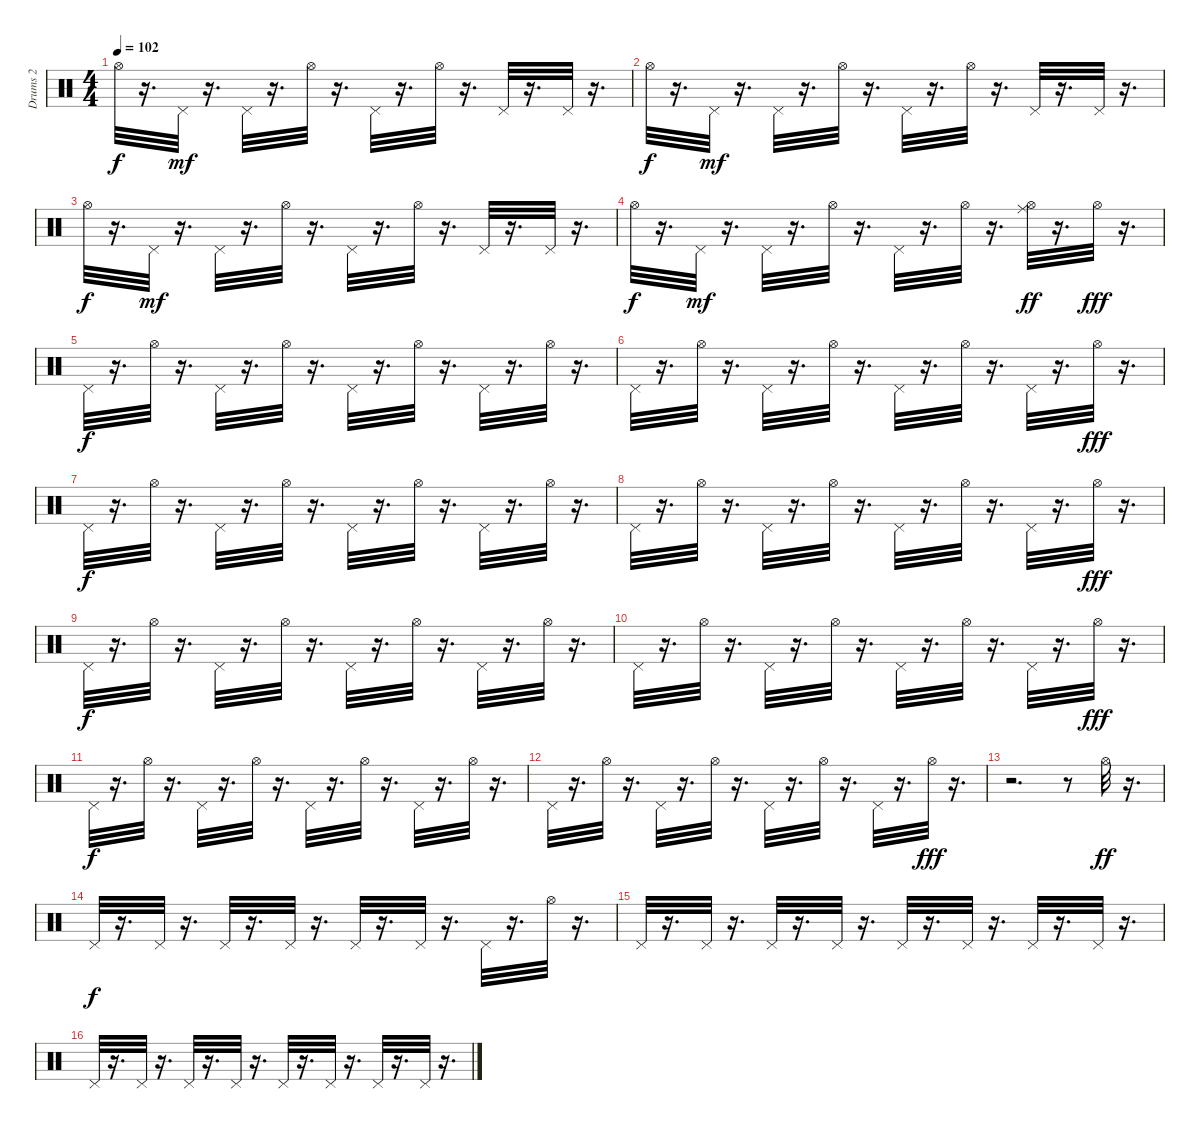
\track ("Drums 2" "Drums 2") {instrument percussion}
\staff {score}
\articulation defaults
\ts (4 4)
\tempo 102
\clef neutral
\ks c "Hi-Hat (open)".32{dy f}
r.16{d} "Pedal Hi-Hat (hit)".32{dy mf} r.16{d} "Pedal Hi-Hat (hit)".32 r.16{d} "Hi-Hat (open)".32 r.16{d} "Pedal Hi-Hat (hit)".32 r.16{d} "Hi-Hat (open)".32 r.16{d} "Pedal Hi-Hat (hit)".32 r.16{d} "Pedal Hi-Hat (hit)".32 r.16{d} |
"Hi-Hat (open)".32{dy f} r.16{d} "Pedal Hi-Hat (hit)".32{dy mf} r.16{d} "Pedal Hi-Hat (hit)".32 r.16{d} "Hi-Hat (open)".32 r.16{d} "Pedal Hi-Hat (hit)".32 r.16{d} "Hi-Hat (open)".32 r.16{d} "Pedal Hi-Hat (hit)".32 r.16{d} "Pedal Hi-Hat (hit)".32 r.16{d} |
"Hi-Hat (open)".32{dy f} r.16{d} "Pedal Hi-Hat (hit)".32{dy mf} r.16{d} "Pedal Hi-Hat (hit)".32 r.16{d} "Hi-Hat (open)".32 r.16{d} "Pedal Hi-Hat (hit)".32 r.16{d} "Hi-Hat (open)".32 r.16{d} "Pedal Hi-Hat (hit)".32 r.16{d} "Pedal Hi-Hat (hit)".32 r.16{d} |
"Hi-Hat (open)".32{dy f} r.16{d} "Pedal Hi-Hat (hit)".32{dy mf} r.16{d} "Pedal Hi-Hat (hit)".32 r.16{d} "Hi-Hat (open)".32 r.16{d} "Pedal Hi-Hat (hit)".32 r.16{d} "Hi-Hat (open)".32 r.16{d} ("Ride (middle)" "Hi-Hat (open)").32{dy ff} r.16{d} "Hi-Hat (open)".32{dy fff} r.16{d} |
"Pedal Hi-Hat (hit)".32{dy f} r.16{d} "Hi-Hat (open)".32 r.16{d} "Pedal Hi-Hat (hit)".32 r.16{d} "Hi-Hat (open)".32 r.16{d} "Pedal Hi-Hat (hit)".32 r.16{d} "Hi-Hat (open)".32 r.16{d} "Pedal Hi-Hat (hit)".32 r.16{d} "Hi-Hat (open)".32 r.16{d} |
"Pedal Hi-Hat (hit)".32 r.16{d} "Hi-Hat (open)".32 r.16{d} "Pedal Hi-Hat (hit)".32 r.16{d} "Hi-Hat (open)".32 r.16{d} "Pedal Hi-Hat (hit)".32 r.16{d} "Hi-Hat (open)".32 r.16{d} "Pedal Hi-Hat (hit)".32 r.16{d} "Hi-Hat (open)".32{dy fff} r.16{d} |
"Pedal Hi-Hat (hit)".32{dy f} r.16{d} "Hi-Hat (open)".32 r.16{d} "Pedal Hi-Hat (hit)".32 r.16{d} "Hi-Hat (open)".32 r.16{d} "Pedal Hi-Hat (hit)".32 r.16{d} "Hi-Hat (open)".32 r.16{d} "Pedal Hi-Hat (hit)".32 r.16{d} "Hi-Hat (open)".32 r.16{d} |
"Pedal Hi-Hat (hit)".32 r.16{d} "Hi-Hat (open)".32 r.16{d} "Pedal Hi-Hat (hit)".32 r.16{d} "Hi-Hat (open)".32 r.16{d} "Pedal Hi-Hat (hit)".32 r.16{d} "Hi-Hat (open)".32 r.16{d} "Pedal Hi-Hat (hit)".32 r.16{d} "Hi-Hat (open)".32{dy fff} r.16{d} |
"Pedal Hi-Hat (hit)".32{dy f} r.16{d} "Hi-Hat (open)".32 r.16{d} "Pedal Hi-Hat (hit)".32 r.16{d} "Hi-Hat (open)".32 r.16{d} "Pedal Hi-Hat (hit)".32 r.16{d} "Hi-Hat (open)".32 r.16{d} "Pedal Hi-Hat (hit)".32 r.16{d} "Hi-Hat (open)".32 r.16{d} |
"Pedal Hi-Hat (hit)".32 r.16{d} "Hi-Hat (open)".32 r.16{d} "Pedal Hi-Hat (hit)".32 r.16{d} "Hi-Hat (open)".32 r.16{d} "Pedal Hi-Hat (hit)".32 r.16{d} "Hi-Hat (open)".32 r.16{d} "Pedal Hi-Hat (hit)".32 r.16{d} "Hi-Hat (open)".32{dy fff} r.16{d} |
"Pedal Hi-Hat (hit)".32{dy f} r.16{d} "Hi-Hat (open)".32 r.16{d} "Pedal Hi-Hat (hit)".32 r.16{d} "Hi-Hat (open)".32 r.16{d} "Pedal Hi-Hat (hit)".32 r.16{d} "Hi-Hat (open)".32 r.16{d} "Pedal Hi-Hat (hit)".32 r.16{d} "Hi-Hat (open)".32 r.16{d} |
"Pedal Hi-Hat (hit)".32 r.16{d} "Hi-Hat (open)".32 r.16{d} "Pedal Hi-Hat (hit)".32 r.16{d} "Hi-Hat (open)".32 r.16{d} "Pedal Hi-Hat (hit)".32 r.16{d} "Hi-Hat (open)".32 r.16{d} "Pedal Hi-Hat (hit)".32 r.16{d} "Hi-Hat (open)".32{dy fff} r.16{d} |
r.2{d} r.8 "Hi-Hat (open)".32{dy ff} r.16{d} |
"Pedal Hi-Hat (hit)".32{dy f} r.16{d} "Pedal Hi-Hat (hit)".32 r.16{d} "Pedal Hi-Hat (hit)".32 r.16{d} "Pedal Hi-Hat (hit)".32 r.16{d} "Pedal Hi-Hat (hit)".32 r.16{d} "Pedal Hi-Hat (hit)".32 r.16{d} "Pedal Hi-Hat (hit)".32 r.16{d} "Hi-Hat (open)".32 r.16{d} |
"Pedal Hi-Hat (hit)".32 r.16{d} "Pedal Hi-Hat (hit)".32 r.16{d} "Pedal Hi-Hat (hit)".32 r.16{d} "Pedal Hi-Hat (hit)".32 r.16{d} "Pedal Hi-Hat (hit)".32 r.16{d} "Pedal Hi-Hat (hit)".32 r.16{d} "Pedal Hi-Hat (hit)".32 r.16{d} "Pedal Hi-Hat (hit)".32 r.16{d} |
"Pedal Hi-Hat (hit)".32 r.16{d} "Pedal Hi-Hat (hit)".32 r.16{d} "Pedal Hi-Hat (hit)".32 r.16{d} "Pedal Hi-Hat (hit)".32 r.16{d} "Pedal Hi-Hat (hit)".32 r.16{d} "Pedal Hi-Hat (hit)".32 r.16{d} "Pedal Hi-Hat (hit)".32 r.16{d} "Pedal Hi-Hat (hit)".32 r.16{d}
